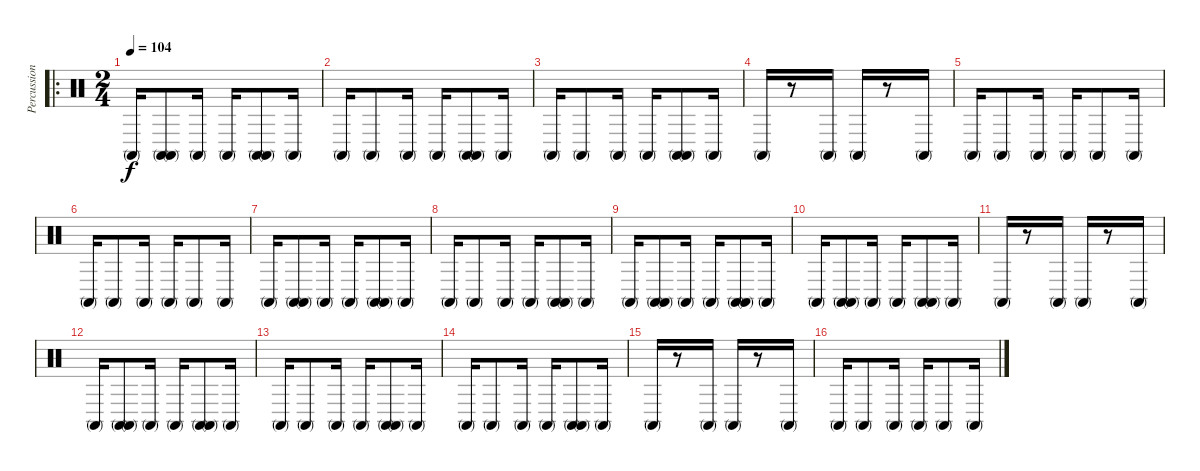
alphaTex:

\track ("Percussion" "Percussion") {instrument percussion}
\staff {score}
\articulation defaults
\ro
\ts (2 4)
\tempo 104
\clef neutral
\ks c "Conga high (mute)".16{dy f}
("Conga high (mute)" "Conga high (mute)").8 "Conga high (mute)".16 "Conga high (mute)".16 ("Conga high (mute)" "Conga high (mute)").8 "Conga high (mute)".16 |
"Conga high (mute)".16 "Conga high (mute)".8 "Conga high (mute)".16 "Conga high (mute)".16 ("Conga high (mute)" "Conga high (mute)").8 "Conga high (mute)".16 |
"Conga high (mute)".16 "Conga high (mute)".8 "Conga high (mute)".16 "Conga high (mute)".16 ("Conga high (mute)" "Conga high (mute)").8 "Conga high (mute)".16 |
"Conga high (mute)".16 r.8 "Conga high (mute)".16 "Conga high (mute)".16 r.8 "Conga high (mute)".16 |
"Conga high (mute)".16 "Conga high (mute)".8 "Conga high (mute)".16 "Conga high (mute)".16 "Conga high (mute)".8 "Conga high (mute)".16 |
"Conga high (mute)".16 "Conga high (mute)".8 "Conga high (mute)".16 "Conga high (mute)".16 "Conga high (mute)".8 "Conga high (mute)".16 |
"Conga high (mute)".16 ("Conga high (mute)" "Conga high (mute)").8 "Conga high (mute)".16 "Conga high (mute)".16 ("Conga high (mute)" "Conga high (mute)").8 "Conga high (mute)".16 |
"Conga high (mute)".16 "Conga high (mute)".8 "Conga high (mute)".16 "Conga high (mute)".16 ("Conga high (mute)" "Conga high (mute)").8 "Conga high (mute)".16 |
"Conga high (mute)".16 ("Conga high (mute)" "Conga high (mute)").8 "Conga high (mute)".16 "Conga high (mute)".16 ("Conga high (mute)" "Conga high (mute)").8 "Conga high (mute)".16 |
"Conga high (mute)".16 ("Conga high (mute)" "Conga high (mute)").8 "Conga high (mute)".16 "Conga high (mute)".16 ("Conga high (mute)" "Conga high (mute)").8 "Conga high (mute)".16 |
"Conga high (mute)".16 r.8 "Conga high (mute)".16 "Conga high (mute)".16 r.8 "Conga high (mute)".16 |
"Conga high (mute)".16 ("Conga high (mute)" "Conga high (mute)").8 "Conga high (mute)".16 "Conga high (mute)".16 ("Conga high (mute)" "Conga high (mute)").8 "Conga high (mute)".16 |
"Conga high (mute)".16 "Conga high (mute)".8 "Conga high (mute)".16 "Conga high (mute)".16 ("Conga high (mute)" "Conga high (mute)").8 "Conga high (mute)".16 |
"Conga high (mute)".16 "Conga high (mute)".8 "Conga high (mute)".16 "Conga high (mute)".16 ("Conga high (mute)" "Conga high (mute)").8 "Conga high (mute)".16 |
"Conga high (mute)".16 r.8 "Conga high (mute)".16 "Conga high (mute)".16 r.8 "Conga high (mute)".16 |
"Conga high (mute)".16 "Conga high (mute)".8 "Conga high (mute)".16 "Conga high (mute)".16 "Conga high (mute)".8 "Conga high (mute)".16
